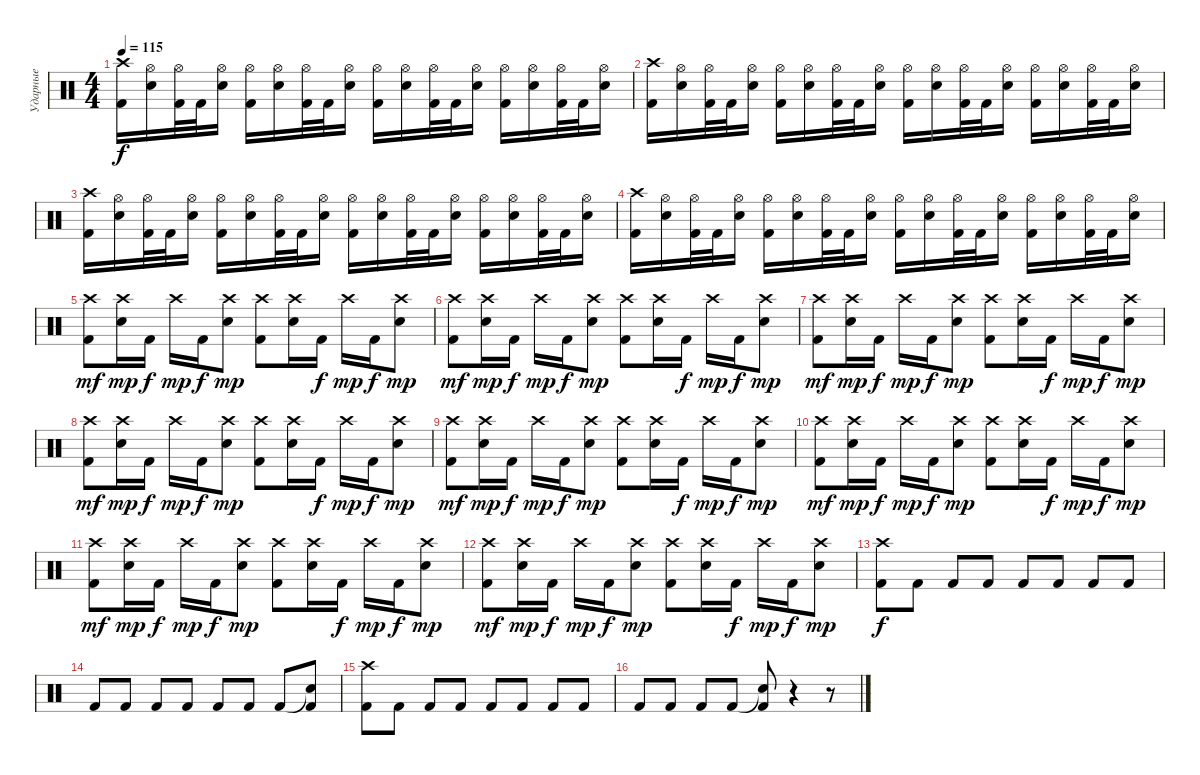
\track ("Ударные" "Ударные") {instrument percussion}
\staff {score}
\articulation defaults
\ts (4 4)
\tempo 115
\clef neutral
\ks c
("Crash high (hit)" "Kick (hit) 2").16{dy f} ("Hi-Hat (open)" "Electric Snare (hit)").16 ("Hi-Hat (open)" "Kick (hit) 2").32 "Kick (hit) 2".32 ("Hi-Hat (open)" "Electric Snare (hit)").16 ("Hi-Hat (open)" "Kick (hit) 2").16 ("Hi-Hat (open)" "Electric Snare (hit)").16 ("Hi-Hat (open)" "Kick (hit) 2").32 "Kick (hit) 2".32 ("Hi-Hat (open)" "Electric Snare (hit)").16 ("Hi-Hat (open)" "Kick (hit) 2").16 ("Hi-Hat (open)" "Electric Snare (hit)").16 ("Hi-Hat (open)" "Kick (hit) 2").32 "Kick (hit) 2".32 ("Hi-Hat (open)" "Electric Snare (hit)").16 ("Hi-Hat (open)" "Kick (hit) 2").16 ("Hi-Hat (open)" "Electric Snare (hit)").16 ("Hi-Hat (open)" "Kick (hit) 2").32 "Kick (hit) 2".32 ("Hi-Hat (open)" "Electric Snare (hit)").16 |
("Crash high (hit)" "Kick (hit) 2").16 ("Hi-Hat (open)" "Electric Snare (hit)").16 ("Hi-Hat (open)" "Kick (hit) 2").32 "Kick (hit) 2".32 ("Hi-Hat (open)" "Electric Snare (hit)").16 ("Hi-Hat (open)" "Kick (hit) 2").16 ("Hi-Hat (open)" "Electric Snare (hit)").16 ("Hi-Hat (open)" "Kick (hit) 2").32 "Kick (hit) 2".32 ("Hi-Hat (open)" "Electric Snare (hit)").16 ("Hi-Hat (open)" "Kick (hit) 2").16 ("Hi-Hat (open)" "Electric Snare (hit)").16 ("Hi-Hat (open)" "Kick (hit) 2").32 "Kick (hit) 2".32 ("Hi-Hat (open)" "Electric Snare (hit)").16 ("Hi-Hat (open)" "Kick (hit) 2").16 ("Hi-Hat (open)" "Electric Snare (hit)").16 ("Hi-Hat (open)" "Kick (hit) 2").32 "Kick (hit) 2".32 ("Hi-Hat (open)" "Electric Snare (hit)").16 |
("Crash high (hit)" "Kick (hit) 2").16 ("Hi-Hat (open)" "Electric Snare (hit)").16 ("Hi-Hat (open)" "Kick (hit) 2").32 "Kick (hit) 2".32 ("Hi-Hat (open)" "Electric Snare (hit)").16 ("Hi-Hat (open)" "Kick (hit) 2").16 ("Hi-Hat (open)" "Electric Snare (hit)").16 ("Hi-Hat (open)" "Kick (hit) 2").32 "Kick (hit) 2".32 ("Hi-Hat (open)" "Electric Snare (hit)").16 ("Hi-Hat (open)" "Kick (hit) 2").16 ("Hi-Hat (open)" "Electric Snare (hit)").16 ("Hi-Hat (open)" "Kick (hit) 2").32 "Kick (hit) 2".32 ("Hi-Hat (open)" "Electric Snare (hit)").16 ("Hi-Hat (open)" "Kick (hit) 2").16 ("Hi-Hat (open)" "Electric Snare (hit)").16 ("Hi-Hat (open)" "Kick (hit) 2").32 "Kick (hit) 2".32 ("Hi-Hat (open)" "Electric Snare (hit)").16 |
("Crash high (hit)" "Kick (hit) 2").16 ("Hi-Hat (open)" "Electric Snare (hit)").16 ("Hi-Hat (open)" "Kick (hit) 2").32 "Kick (hit) 2".32 ("Hi-Hat (open)" "Electric Snare (hit)").16 ("Hi-Hat (open)" "Kick (hit) 2").16 ("Hi-Hat (open)" "Electric Snare (hit)").16 ("Hi-Hat (open)" "Kick (hit) 2").32 "Kick (hit) 2".32 ("Hi-Hat (open)" "Electric Snare (hit)").16 ("Hi-Hat (open)" "Kick (hit) 2").16 ("Hi-Hat (open)" "Electric Snare (hit)").16 ("Hi-Hat (open)" "Kick (hit) 2").32 "Kick (hit) 2".32 ("Hi-Hat (open)" "Electric Snare (hit)").16 ("Hi-Hat (open)" "Kick (hit) 2").16 ("Hi-Hat (open)" "Electric Snare (hit)").16 ("Hi-Hat (open)" "Kick (hit) 2").32 "Kick (hit) 2".32 ("Hi-Hat (open)" "Electric Snare (hit)").16 |
("Crash high (hit)" "Kick (hit) 2").8{dy mf} ("Crash high (hit)" "Electric Snare (hit)").16{dy mp} "Kick (hit) 2".16{dy f} "Crash high (hit)".16{dy mp} "Kick (hit) 2".16{dy f} ("Crash high (hit)" "Electric Snare (hit)").8{dy mp} ("Crash high (hit)" "Kick (hit) 2").8 ("Crash high (hit)" "Electric Snare (hit)").16 "Kick (hit) 2".16{dy f} "Crash high (hit)".16{dy mp} "Kick (hit) 2".16{dy f} ("Crash high (hit)" "Electric Snare (hit)").8{dy mp} |
("Crash high (hit)" "Kick (hit) 2").8{dy mf} ("Crash high (hit)" "Electric Snare (hit)").16{dy mp} "Kick (hit) 2".16{dy f} "Crash high (hit)".16{dy mp} "Kick (hit) 2".16{dy f} ("Crash high (hit)" "Electric Snare (hit)").8{dy mp} ("Crash high (hit)" "Kick (hit) 2").8 ("Crash high (hit)" "Electric Snare (hit)").16 "Kick (hit) 2".16{dy f} "Crash high (hit)".16{dy mp} "Kick (hit) 2".16{dy f} ("Crash high (hit)" "Electric Snare (hit)").8{dy mp} |
("Crash high (hit)" "Kick (hit) 2").8{dy mf} ("Crash high (hit)" "Electric Snare (hit)").16{dy mp} "Kick (hit) 2".16{dy f} "Crash high (hit)".16{dy mp} "Kick (hit) 2".16{dy f} ("Crash high (hit)" "Electric Snare (hit)").8{dy mp} ("Crash high (hit)" "Kick (hit) 2").8 ("Crash high (hit)" "Electric Snare (hit)").16 "Kick (hit) 2".16{dy f} "Crash high (hit)".16{dy mp} "Kick (hit) 2".16{dy f} ("Crash high (hit)" "Electric Snare (hit)").8{dy mp} |
("Crash high (hit)" "Kick (hit) 2").8{dy mf} ("Crash high (hit)" "Electric Snare (hit)").16{dy mp} "Kick (hit) 2".16{dy f} "Crash high (hit)".16{dy mp} "Kick (hit) 2".16{dy f} ("Crash high (hit)" "Electric Snare (hit)").8{dy mp} ("Crash high (hit)" "Kick (hit) 2").8 ("Crash high (hit)" "Electric Snare (hit)").16 "Kick (hit) 2".16{dy f} "Crash high (hit)".16{dy mp} "Kick (hit) 2".16{dy f} ("Crash high (hit)" "Electric Snare (hit)").8{dy mp} |
("Crash high (hit)" "Kick (hit) 2").8{dy mf} ("Crash high (hit)" "Electric Snare (hit)").16{dy mp} "Kick (hit) 2".16{dy f} "Crash high (hit)".16{dy mp} "Kick (hit) 2".16{dy f} ("Crash high (hit)" "Electric Snare (hit)").8{dy mp} ("Crash high (hit)" "Kick (hit) 2").8 ("Crash high (hit)" "Electric Snare (hit)").16 "Kick (hit) 2".16{dy f} "Crash high (hit)".16{dy mp} "Kick (hit) 2".16{dy f} ("Crash high (hit)" "Electric Snare (hit)").8{dy mp} |
("Crash high (hit)" "Kick (hit) 2").8{dy mf} ("Crash high (hit)" "Electric Snare (hit)").16{dy mp} "Kick (hit) 2".16{dy f} "Crash high (hit)".16{dy mp} "Kick (hit) 2".16{dy f} ("Crash high (hit)" "Electric Snare (hit)").8{dy mp} ("Crash high (hit)" "Kick (hit) 2").8 ("Crash high (hit)" "Electric Snare (hit)").16 "Kick (hit) 2".16{dy f} "Crash high (hit)".16{dy mp} "Kick (hit) 2".16{dy f} ("Crash high (hit)" "Electric Snare (hit)").8{dy mp} |
("Crash high (hit)" "Kick (hit) 2").8{dy mf} ("Crash high (hit)" "Electric Snare (hit)").16{dy mp} "Kick (hit) 2".16{dy f} "Crash high (hit)".16{dy mp} "Kick (hit) 2".16{dy f} ("Crash high (hit)" "Electric Snare (hit)").8{dy mp} ("Crash high (hit)" "Kick (hit) 2").8 ("Crash high (hit)" "Electric Snare (hit)").16 "Kick (hit) 2".16{dy f} "Crash high (hit)".16{dy mp} "Kick (hit) 2".16{dy f} ("Crash high (hit)" "Electric Snare (hit)").8{dy mp} |
("Crash high (hit)" "Kick (hit) 2").8{dy mf} ("Crash high (hit)" "Electric Snare (hit)").16{dy mp} "Kick (hit) 2".16{dy f} "Crash high (hit)".16{dy mp} "Kick (hit) 2".16{dy f} ("Crash high (hit)" "Electric Snare (hit)").8{dy mp} ("Crash high (hit)" "Kick (hit) 2").8 ("Crash high (hit)" "Electric Snare (hit)").16 "Kick (hit) 2".16{dy f} "Crash high (hit)".16{dy mp} "Kick (hit) 2".16{dy f} ("Crash high (hit)" "Electric Snare (hit)").8{dy mp} |
("Crash high (hit)" "Kick (hit) 2").8{dy f} "Kick (hit) 2".8 "Kick (hit) 2".8 "Kick (hit) 2".8 "Kick (hit) 2".8 "Kick (hit) 2".8 "Kick (hit) 2".8 "Kick (hit) 2".8 |
"Kick (hit) 2".8 "Kick (hit) 2".8 "Kick (hit) 2".8 "Kick (hit) 2".8 "Kick (hit) 2".8 "Kick (hit) 2".8 "Kick (hit) 2".8 ("Snare (hit)"{t} "Kick (hit) 2").8 |
("Crash high (hit)" "Kick (hit) 2").8 "Kick (hit) 2".8 "Kick (hit) 2".8 "Kick (hit) 2".8 "Kick (hit) 2".8 "Kick (hit) 2".8 "Kick (hit) 2".8 "Kick (hit) 2".8 |
"Kick (hit) 2".8 "Kick (hit) 2".8 "Kick (hit) 2".8 "Kick (hit) 2".8 ("Snare (hit)"{t} "Kick (hit) 2").8 r.4 r.8
